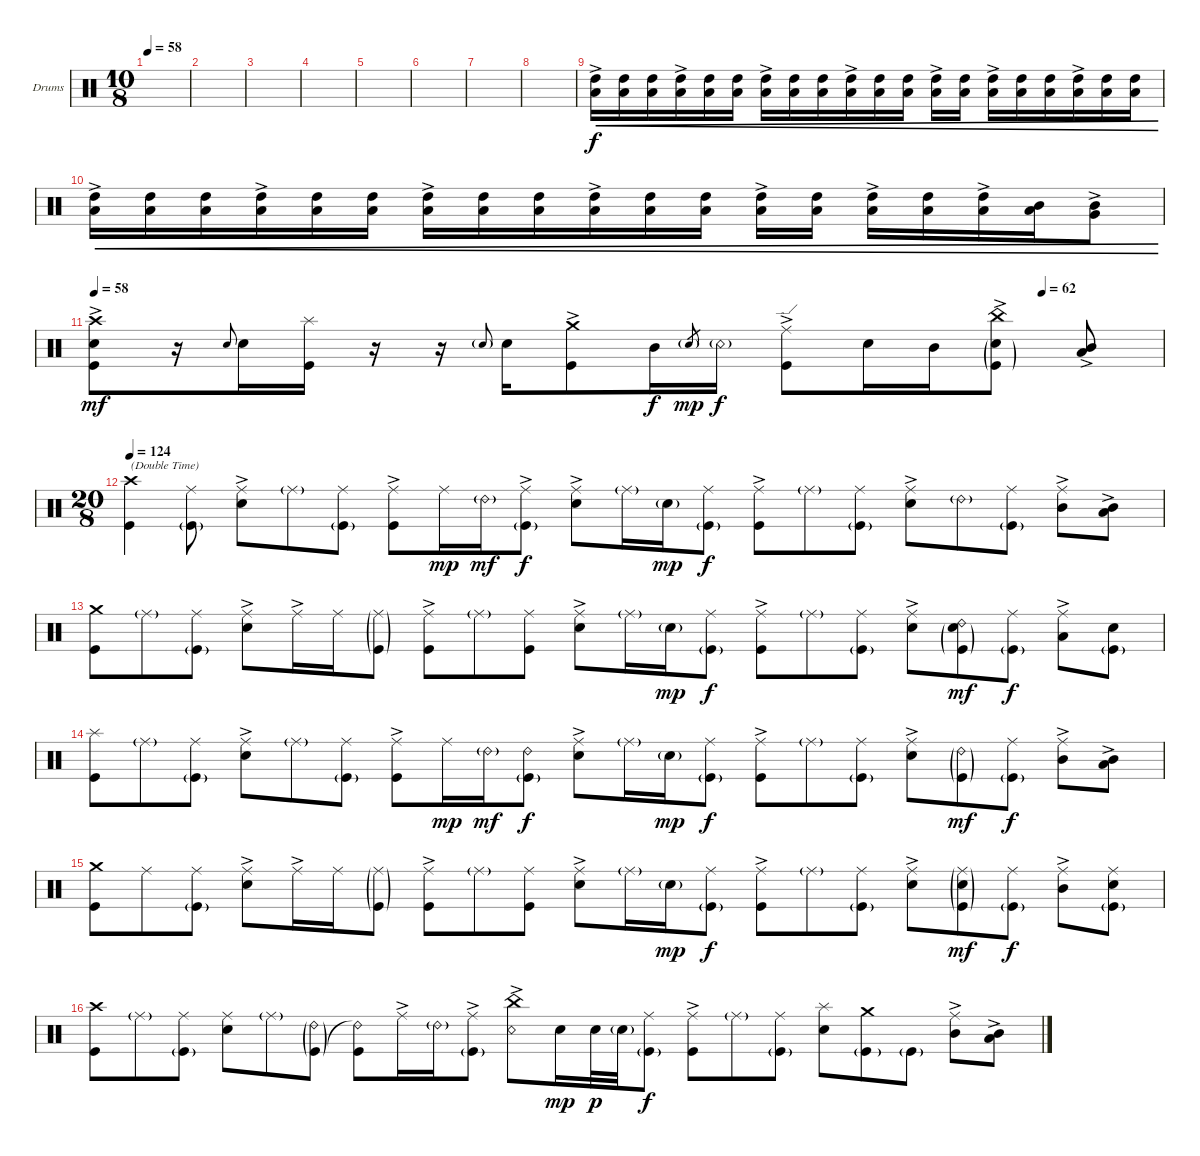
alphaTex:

\bracketExtendMode groupsimilarinstruments
\firstSystemTrackNameOrientation horizontal
\otherSystemsTrackNameOrientation horizontal
\track ("Drumkit" "Drums") {instrument percussion}
\staff {score}
\articulation defaults
\ts (10 8)
\beaming (8 3 3 1 3)
\tempo 58
\clef neutral
\ks c
|
|
|
|
|
|
|
|
("Low Tom (hit)"{ac} "High Tom (hit)").16{cre} ("Low Tom (hit)" "High Tom (hit)").16{cre} ("Low Tom (hit)" "High Tom (hit)").16{cre} ("Low Tom (hit)" "High Tom (hit)"{ac}).16{cre} ("Low Tom (hit)" "High Tom (hit)").16{cre} ("Low Tom (hit)" "High Tom (hit)").16{cre} ("Low Tom (hit)" "High Tom (hit)"{ac}).16{cre} ("Low Tom (hit)" "High Tom (hit)").16{cre} ("Low Tom (hit)" "High Tom (hit)").16{cre} ("Low Tom (hit)" "High Tom (hit)"{ac}).16{cre} ("Low Tom (hit)" "High Tom (hit)").16{cre} ("Low Tom (hit)" "High Tom (hit)").16{cre} ("Low Tom (hit)"{ac} "High Tom (hit)").16{cre} ("Low Tom (hit)" "High Tom (hit)").16{cre} ("Low Tom (hit)"{ac} "High Tom (hit)").16{cre} ("Low Tom (hit)" "High Tom (hit)").16{cre} ("Low Tom (hit)" "High Tom (hit)").16{cre} ("Low Tom (hit)" "High Tom (hit)"{ac}).16{cre} ("Low Tom (hit)" "High Tom (hit)").16{cre} ("Low Tom (hit)" "High Tom (hit)").16{cre} |
("Low Tom (hit)" "High Tom (hit)"{ac}).16{cre} ("Low Tom (hit)" "High Tom (hit)").16{cre} ("Low Tom (hit)" "High Tom (hit)").16{cre} ("Low Tom (hit)" "High Tom (hit)"{ac}).16{cre} ("Low Tom (hit)" "High Tom (hit)").16{cre} ("Low Tom (hit)" "High Tom (hit)").16{cre} ("Low Tom (hit)"{ac} "High Tom (hit)"{ac}).16{cre} ("Low Tom (hit)" "High Tom (hit)").16{cre} ("Low Tom (hit)" "High Tom (hit)").16{cre} ("Low Tom (hit)" "High Tom (hit)"{ac}).16{cre} ("Low Tom (hit)" "High Tom (hit)").16{cre} ("Low Tom (hit)" "High Tom (hit)").16{cre} ("Low Tom (hit)" "High Tom (hit)"{ac}).16{cre} ("Low Tom (hit)" "High Tom (hit)").16{cre} ("Low Tom (hit)" "High Tom (hit)"{ac}).16{cre} ("Low Tom (hit)" "High Tom (hit)").16{cre} ("Low Tom (hit)"{ac} "High Tom (hit)").16{cre} ("Low Tom (hit)" "Mid Tom (hit)").16{cre} ("Mid Tom (hit)" "Very Low Tom (hit)"{ac}).8{cre} |
\beaming (8 3 3 3 3 3 3 2)
\tempo 58
\tempo (62 0.887324)
("Kick (hit)" "Crash high (hit)"{ac} "Snare (hit) 2").8{dy mf} r.16 "Snare (hit) 2".8{gr onbeat} "Snare (hit) 2".16 ("Kick (hit)" "Splash (hit)").16 r.16 r.16 "Snare (hit) 2"{g}.8{gr onbeat} "Snare (hit) 2".16 ("Kick (hit)" "Crash medium (hit)"{ac}).8 "Mid Tom (hit)".16{dy f} "Snare (hit) 2"{g}.8{gr dy mp} "Snare (rim shot)"{g}.16{dy f} ("Kick (hit)" "Ride (edge)"{ac}).8 "Snare (hit) 2".16 "Mid Tom (hit)".16 ("Kick (hit)"{g} "China (hit)"{ac} "Snare (hit) 2"{g}).8 ("Mid Tom (hit)"{ac} "Low Tom (hit)"{ac}).8 |
\ts (20 8)
\beaming (8 3 3 3 3 3 3 2)
\tempo 124
("Kick (hit)" "Crash high (hit)").4{txt "(Double Time)"} ("Ride (middle)" "Kick (hit)"{g}).8 ("Ride (middle)"{ac} "Snare (hit) 2").8 "Ride (middle)"{g}.8 ("Ride (middle)" "Kick (hit)"{g}).8 ("Ride (middle)"{ac} "Kick (hit)").8 "Ride (middle)".16{dy mp} "Ride (bell) 2"{g}.16{dy mf} ("Ride (middle)"{ac} "Kick (hit)"{g}).8{dy f} ("Ride (middle)"{ac} "Snare (hit) 2").8 "Ride (middle)"{g}.16 "Snare (hit) 2"{g}.16{dy mp} ("Ride (middle)" "Kick (hit)"{g}).8{dy f} ("Kick (hit)" "Ride (middle)"{ac}).8 "Ride (middle)"{g}.8 ("Ride (middle)" "Kick (hit)"{g}).8 ("Ride (middle)"{ac} "Snare (hit) 2").8 "Ride (bell) 2"{g}.8 ("Ride (middle)" "Kick (hit)"{g}).8 ("Ride (middle)"{ac} "Mid Tom (hit)").8 ("Mid Tom (hit)" "Low Tom (hit)"{ac}).8 |
("Kick (hit)" "Crash medium (hit)").8 "Ride (middle)"{g}.8 ("Ride (middle)" "Kick (hit)"{g}).8 ("Ride (middle)"{ac} "Snare (hit) 2").8 "Ride (middle)"{ac}.16 "Ride (middle)".16 ("Ride (middle)"{g} "Kick (hit)"{g}).8 ("Ride (middle)"{ac} "Kick (hit)").8 "Ride (middle)"{g}.8 ("Ride (middle)" "Kick (hit)").8 ("Ride (middle)"{ac} "Snare (hit) 2").8 "Ride (middle)"{g}.16 "Snare (hit) 2"{g}.16{dy mp} ("Ride (middle)" "Kick (hit)"{g}).8{dy f} ("Kick (hit)" "Ride (middle)"{ac}).8 "Ride (middle)"{g}.8 ("Ride (middle)" "Kick (hit)"{g}).8 ("Ride (middle)"{ac} "Snare (hit) 2").8 ("Ride (bell) 2" "Snare (hit) 2"{g} "Kick (hit)"{g}).8{dy mf} ("Ride (middle)" "Kick (hit)"{g}).8{dy f} ("Low Tom (hit)"{ac} "Ride (middle)").8 ("Snare (hit) 2" "Kick (hit)"{g}).8 |
("Kick (hit)" "Splash (hit)").8 "Ride (middle)"{g}.8 ("Ride (middle)" "Kick (hit)"{g}).8 ("Ride (middle)"{ac} "Snare (hit) 2").8 "Ride (middle)"{g}.8 ("Ride (middle)" "Kick (hit)"{g}).8 ("Ride (middle)"{ac} "Kick (hit)").8 "Ride (middle)".16{dy mp} "Ride (bell) 2"{g}.16{dy mf} ("Ride (bell) 2" "Kick (hit)"{g}).8{dy f} ("Ride (middle)"{ac} "Snare (hit) 2").8 "Ride (middle)"{g}.16 "Snare (hit) 2"{g}.16{dy mp} ("Ride (middle)" "Kick (hit)"{g}).8{dy f} ("Kick (hit)" "Ride (middle)"{ac}).8 "Ride (middle)"{g}.8 ("Ride (middle)" "Kick (hit)"{g}).8 ("Ride (middle)"{ac} "Snare (hit) 2").8 ("Ride (bell) 2"{g} "Kick (hit)"{g}).8{dy mf} ("Ride (middle)" "Kick (hit)"{g}).8{dy f} ("Ride (middle)"{ac} "Mid Tom (hit)").8 ("Mid Tom (hit)" "Low Tom (hit)"{ac}).8 |
("Kick (hit)" "Crash medium (hit)").8 "Ride (middle)".8 ("Ride (middle)" "Kick (hit)"{g}).8 ("Ride (middle)"{ac} "Snare (hit) 2").8 "Ride (middle)"{ac}.16 "Ride (middle)".16 ("Ride (middle)"{g} "Kick (hit)"{g}).8 ("Ride (middle)"{ac} "Kick (hit)").8 "Ride (middle)"{g}.8 ("Ride (middle)" "Kick (hit)").8 ("Ride (middle)"{ac} "Snare (hit) 2").8 "Ride (middle)"{g}.16 "Snare (hit) 2"{g}.16{dy mp} ("Ride (middle)" "Kick (hit)"{g}).8{dy f} ("Kick (hit)" "Ride (middle)"{ac}).8 "Ride (middle)"{g}.8 ("Ride (middle)" "Kick (hit)"{g}).8 ("Ride (middle)"{ac} "Snare (hit) 2").8 ("Ride (middle)"{g} "Snare (hit) 2"{g} "Kick (hit)"{g}).8{dy mf} ("Ride (middle)" "Kick (hit)"{g}).8{dy f} ("Mid Tom (hit)" "Ride (middle)"{ac}).8 ("Snare (hit) 2" "Ride (middle)" "Kick (hit)"{g}).8 |
("Kick (hit)" "Crash high (hit)").8 "Ride (middle)"{g}.8 ("Ride (middle)" "Kick (hit)"{g}).8 ("Snare (hit) 2" "Ride (middle)").8 "Ride (middle)"{g}.8 ("Ride (bell) 2"{g} "Kick (hit)"{g}).8 ("Kick (hit)" "Ride (bell) 2"{t}).8 "Ride (middle)"{ac}.16 "Ride (bell) 2"{g}.16 ("Ride (middle)"{ac} "Kick (hit)"{g}).8 ("Snare (rim shot)" "China (hit)"{ac}).8 "Snare (hit) 2".16{dy mp} "Snare (hit) 2".32{dy p} "Snare (hit) 2"{g}.32 ("Ride (middle)" "Kick (hit)"{g}).8{dy f} ("Kick (hit)" "Ride (middle)"{ac}).8 "Ride (middle)"{g}.8 ("Ride (middle)" "Kick (hit)"{g}).8 ("Snare (hit) 2" "Splash (hit)").8 ("Kick (hit)"{g} "Crash medium (hit)").8 "Kick (hit)"{g}.8 ("Ride (middle)"{ac} "Mid Tom (hit)").8 ("Mid Tom (hit)" "Low Tom (hit)"{ac}).8
